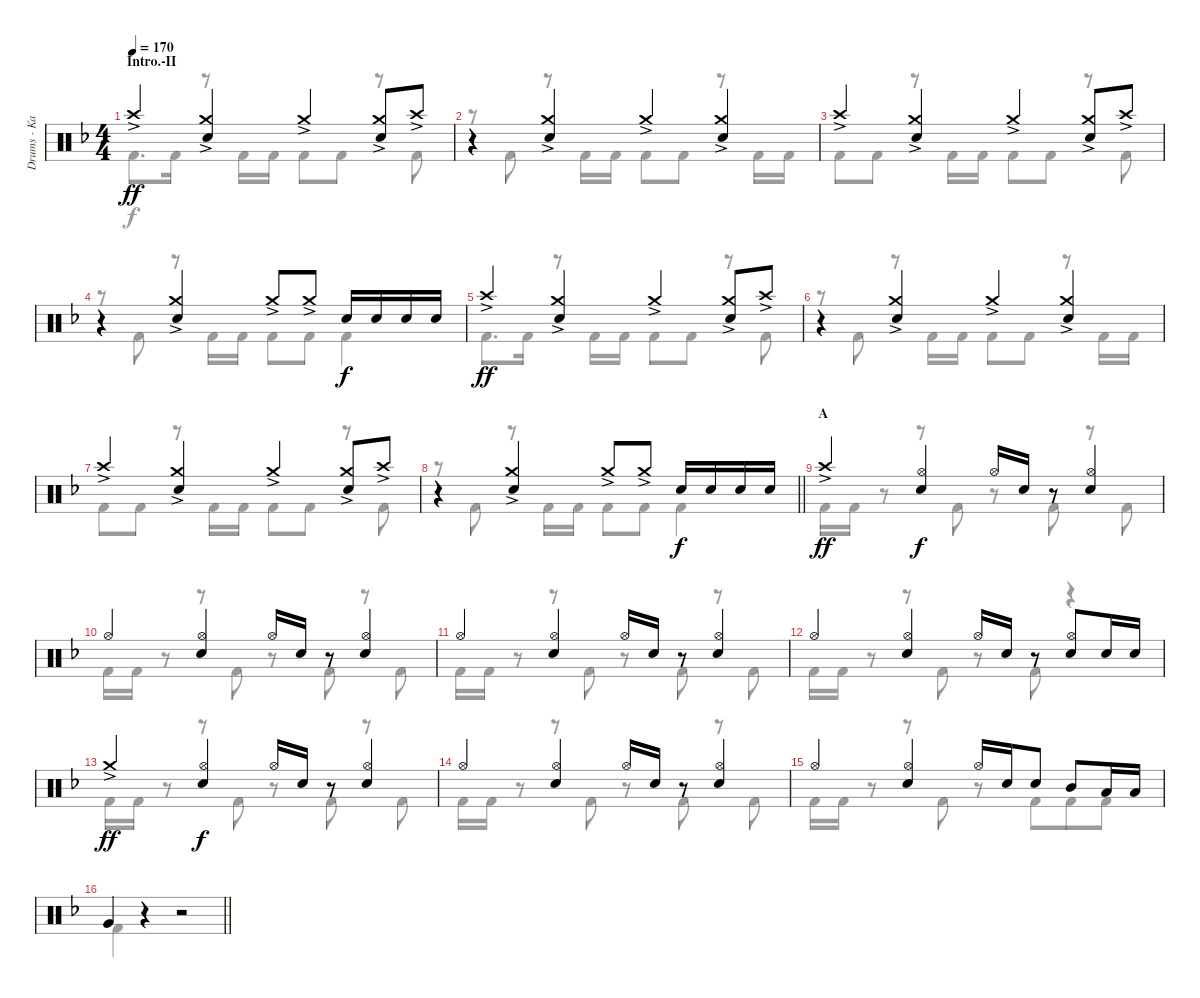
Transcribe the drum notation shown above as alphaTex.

\track ("Drums - Kai" "Drums - Ka") {instrument percussion}
\staff {score}
\articulation defaults
\voice
\ts (4 4)
\section ("" "Intro.-II")
\tempo 170
\clef neutral
\ks f "Crash high (hit)"{ac}.4{dy ff}
("Crash medium (hit)"{ac} "Snare (hit) 2").4 "Crash medium (hit)"{ac}.4 ("Crash medium (hit)"{ac} "Snare (hit) 2").8 "Crash high (hit)"{ac}.8 |
r.4 ("Crash medium (hit)"{ac} "Snare (hit) 2").4 "Crash medium (hit)"{ac}.4 ("Crash medium (hit)"{ac} "Snare (hit) 2").4 |
"Crash high (hit)"{ac}.4 ("Crash medium (hit)"{ac} "Snare (hit) 2").4 "Crash medium (hit)"{ac}.4 ("Crash medium (hit)"{ac} "Snare (hit) 2").8 "Crash high (hit)"{ac}.8 |
r.4 ("Crash medium (hit)"{ac} "Snare (hit) 2").4 "Crash medium (hit)"{ac}.8 "Crash medium (hit)"{ac}.8 "Snare (hit) 2".16{dy f} "Snare (hit) 2".16 "Snare (hit) 2".16 "Snare (hit) 2".16 |
"Crash high (hit)"{ac}.4{dy ff} ("Crash medium (hit)"{ac} "Snare (hit) 2").4 "Crash medium (hit)"{ac}.4 ("Crash medium (hit)"{ac} "Snare (hit) 2").8 "Crash high (hit)"{ac}.8 |
r.4 ("Crash medium (hit)"{ac} "Snare (hit) 2").4 "Crash medium (hit)"{ac}.4 ("Crash medium (hit)"{ac} "Snare (hit) 2").4 |
"Crash high (hit)"{ac}.4 ("Crash medium (hit)"{ac} "Snare (hit) 2").4 "Crash medium (hit)"{ac}.4 ("Crash medium (hit)"{ac} "Snare (hit) 2").8 "Crash high (hit)"{ac}.8 |
\barLineRight lightlight
r.4 ("Crash medium (hit)"{ac} "Snare (hit) 2").4 "Crash medium (hit)"{ac}.8 "Crash medium (hit)"{ac}.8 "Snare (hit) 2".16{dy f} "Snare (hit) 2".16 "Snare (hit) 2".16 "Snare (hit) 2".16 |
\section ("" "A")
"Crash high (hit)"{ac}.4{dy ff} ("Hi-Hat (open)" "Snare (hit) 2").4{dy f} "Hi-Hat (open)".16 "Snare (hit) 2".16 r.8 ("Hi-Hat (open)" "Snare (hit) 2").4 |
"Hi-Hat (open)".4 ("Hi-Hat (open)" "Snare (hit) 2").4 "Hi-Hat (open)".16 "Snare (hit) 2".16 r.8 ("Hi-Hat (open)" "Snare (hit) 2").4 |
"Hi-Hat (open)".4 ("Hi-Hat (open)" "Snare (hit) 2").4 "Hi-Hat (open)".16 "Snare (hit) 2".16 r.8 ("Hi-Hat (open)" "Snare (hit) 2").4 |
"Hi-Hat (open)".4 ("Hi-Hat (open)" "Snare (hit) 2").4 "Hi-Hat (open)".16 "Snare (hit) 2".16 r.8 ("Hi-Hat (open)" "Snare (hit) 2").8 "Snare (hit) 2".16 "Snare (hit) 2".16 |
"Crash medium (hit)"{ac}.4{dy ff} ("Hi-Hat (open)" "Snare (hit) 2").4{dy f} "Hi-Hat (open)".16 "Snare (hit) 2".16 r.8 ("Hi-Hat (open)" "Snare (hit) 2").4 |
"Hi-Hat (open)".4 ("Hi-Hat (open)" "Snare (hit) 2").4 "Hi-Hat (open)".16 "Snare (hit) 2".16 r.8 ("Hi-Hat (open)" "Snare (hit) 2").4 |
"Hi-Hat (open)".4 ("Hi-Hat (open)" "Snare (hit) 2").4 "Hi-Hat (open)".16 "Snare (hit) 2".16 "Snare (hit) 2".8 "Mid Tom (hit)".8 "Low Tom (hit)".16 "Low Tom (hit)".16 |
\barLineRight lightlight "Very Low Tom (hit)".4
r.4 r.2
\voice
\clef neutral
\ottava regular
\simile none
\ks f "Kick (hit) 2".8{d dy f} "Kick (hit) 2".16
r.8 "Kick (hit) 2".16 "Kick (hit) 2".16 "Kick (hit) 2".8 "Kick (hit) 2".8 r.8 "Kick (hit) 2".8 |
r.8 "Kick (hit) 2".8 r.8 "Kick (hit) 2".16 "Kick (hit) 2".16 "Kick (hit) 2".8 "Kick (hit) 2".8 r.8 "Kick (hit) 2".16 "Kick (hit) 2".16 |
"Kick (hit) 2".8 "Kick (hit) 2".8 r.8 "Kick (hit) 2".16 "Kick (hit) 2".16 "Kick (hit) 2".8 "Kick (hit) 2".8 r.8 "Kick (hit) 2".8 |
r.8 "Kick (hit) 2".8 r.8 "Kick (hit) 2".16 "Kick (hit) 2".16 "Kick (hit) 2".8 "Kick (hit) 2".8 "Kick (hit) 2".4 |
"Kick (hit) 2".8{d} "Kick (hit) 2".16 r.8 "Kick (hit) 2".16 "Kick (hit) 2".16 "Kick (hit) 2".8 "Kick (hit) 2".8 r.8 "Kick (hit) 2".8 |
r.8 "Kick (hit) 2".8 r.8 "Kick (hit) 2".16 "Kick (hit) 2".16 "Kick (hit) 2".8 "Kick (hit) 2".8 r.8 "Kick (hit) 2".16 "Kick (hit) 2".16 |
"Kick (hit) 2".8 "Kick (hit) 2".8 r.8 "Kick (hit) 2".16 "Kick (hit) 2".16 "Kick (hit) 2".8 "Kick (hit) 2".8 r.8 "Kick (hit) 2".8 |
\barLineRight lightlight
r.8 "Kick (hit) 2".8 r.8 "Kick (hit) 2".16 "Kick (hit) 2".16 "Kick (hit) 2".8 "Kick (hit) 2".8 "Kick (hit) 2".4 |
"Kick (hit) 2".16 "Kick (hit) 2".16 r.8 r.8 "Kick (hit) 2".8 r.8 "Kick (hit) 2".8 r.8 "Kick (hit) 2".8 |
"Kick (hit) 2".16 "Kick (hit) 2".16 r.8 r.8 "Kick (hit) 2".8 r.8 "Kick (hit) 2".8 r.8 "Kick (hit) 2".8 |
"Kick (hit) 2".16 "Kick (hit) 2".16 r.8 r.8 "Kick (hit) 2".8 r.8 "Kick (hit) 2".8 r.8 "Kick (hit) 2".8 |
"Kick (hit) 2".16 "Kick (hit) 2".16 r.8 r.8 "Kick (hit) 2".8 r.8 "Kick (hit) 2".8 r.4 |
"Kick (hit) 2".16 "Kick (hit) 2".16 r.8 r.8 "Kick (hit) 2".8 r.8 "Kick (hit) 2".8 r.8 "Kick (hit) 2".8 |
"Kick (hit) 2".16 "Kick (hit) 2".16 r.8 r.8 "Kick (hit) 2".8 r.8 "Kick (hit) 2".8 r.8 "Kick (hit) 2".8 |
"Kick (hit) 2".16 "Kick (hit) 2".16 r.8 r.8 "Kick (hit) 2".8 r.8 "Kick (hit) 2".8{beam merge} "Kick (hit) 2".8 "Kick (hit) 2".8 |
\barLineRight lightlight "Kick (hit) 2".4
r.4 r.2
